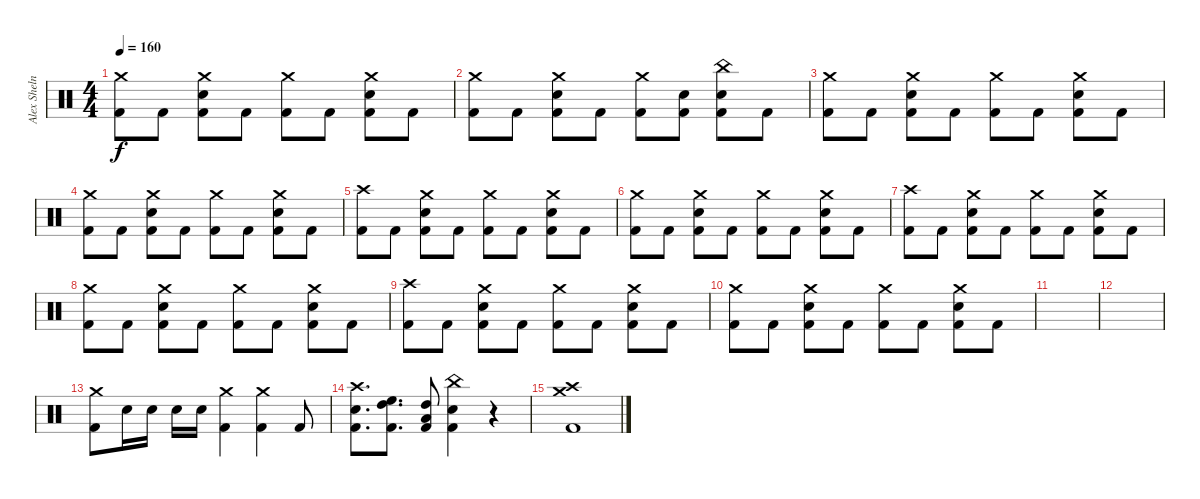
\track ("Alex Shelnutt" "Alex Sheln") {instrument percussion}
\staff {score}
\articulation defaults
\ts (4 4)
\tempo 160
\clef neutral
\ks c
("Crash medium (hit)" "Kick (hit) 2").8{dy f} "Kick (hit) 2".8 ("Crash medium (hit)" "Electric Snare (hit)" "Kick (hit) 2").8 "Kick (hit) 2".8 ("Crash medium (hit)" "Kick (hit) 2").8 "Kick (hit) 2".8 ("Crash medium (hit)" "Electric Snare (hit)" "Kick (hit) 2").8 "Kick (hit) 2".8 |
("Crash medium (hit)" "Kick (hit) 2").8 "Kick (hit) 2".8 ("Crash medium (hit)" "Electric Snare (hit)" "Kick (hit) 2").8 "Kick (hit) 2".8 ("Crash medium (hit)" "Kick (hit) 2").8 ("Electric Snare (hit)" "Kick (hit) 2").8 ("China (hit)" "Electric Snare (hit)" "Kick (hit) 2").8 "Kick (hit) 2".8 |
("Crash medium (hit)" "Kick (hit) 2").8 "Kick (hit) 2".8 ("Crash medium (hit)" "Electric Snare (hit)" "Kick (hit) 2").8 "Kick (hit) 2".8 ("Crash medium (hit)" "Kick (hit) 2").8 "Kick (hit) 2".8 ("Crash medium (hit)" "Electric Snare (hit)" "Kick (hit) 2").8 "Kick (hit) 2".8 |
("Crash medium (hit)" "Kick (hit) 2").8 "Kick (hit) 2".8 ("Crash medium (hit)" "Electric Snare (hit)" "Kick (hit) 2").8 "Kick (hit) 2".8 ("Crash medium (hit)" "Kick (hit) 2").8 "Kick (hit) 2".8 ("Crash medium (hit)" "Electric Snare (hit)" "Kick (hit) 2").8 "Kick (hit) 2".8 |
("Crash high (hit)" "Kick (hit) 2").8 "Kick (hit) 2".8 ("Crash medium (hit)" "Electric Snare (hit)" "Kick (hit) 2").8 "Kick (hit) 2".8 ("Crash medium (hit)" "Kick (hit) 2").8 "Kick (hit) 2".8 ("Crash medium (hit)" "Electric Snare (hit)" "Kick (hit) 2").8 "Kick (hit) 2".8 |
("Crash medium (hit)" "Kick (hit) 2").8 "Kick (hit) 2".8 ("Crash medium (hit)" "Electric Snare (hit)" "Kick (hit) 2").8 "Kick (hit) 2".8 ("Crash medium (hit)" "Kick (hit) 2").8 "Kick (hit) 2".8 ("Crash medium (hit)" "Electric Snare (hit)" "Kick (hit) 2").8 "Kick (hit) 2".8 |
("Crash high (hit)" "Kick (hit) 2").8 "Kick (hit) 2".8 ("Crash medium (hit)" "Electric Snare (hit)" "Kick (hit) 2").8 "Kick (hit) 2".8 ("Crash medium (hit)" "Kick (hit) 2").8 "Kick (hit) 2".8 ("Crash medium (hit)" "Electric Snare (hit)" "Kick (hit) 2").8 "Kick (hit) 2".8 |
("Crash medium (hit)" "Kick (hit) 2").8 "Kick (hit) 2".8 ("Crash medium (hit)" "Electric Snare (hit)" "Kick (hit) 2").8 "Kick (hit) 2".8 ("Crash medium (hit)" "Kick (hit) 2").8 "Kick (hit) 2".8 ("Crash medium (hit)" "Electric Snare (hit)" "Kick (hit) 2").8 "Kick (hit) 2".8 |
("Crash high (hit)" "Kick (hit) 2").8 "Kick (hit) 2".8 ("Crash medium (hit)" "Electric Snare (hit)" "Kick (hit) 2").8 "Kick (hit) 2".8 ("Crash medium (hit)" "Kick (hit) 2").8 "Kick (hit) 2".8 ("Crash medium (hit)" "Electric Snare (hit)" "Kick (hit) 2").8 "Kick (hit) 2".8 |
("Crash medium (hit)" "Kick (hit) 2").8 "Kick (hit) 2".8 ("Crash medium (hit)" "Electric Snare (hit)" "Kick (hit) 2").8 "Kick (hit) 2".8 ("Crash medium (hit)" "Kick (hit) 2").8 "Kick (hit) 2".8 ("Crash medium (hit)" "Electric Snare (hit)" "Kick (hit) 2").8 "Kick (hit) 2".8 |
|
|
("Crash medium (hit)" "Kick (hit) 2").8 "Electric Snare (hit)".16 "Electric Snare (hit)".16 "Electric Snare (hit)".16 "Electric Snare (hit)".16 ("Crash medium (hit)" "Kick (hit) 2").4 ("Crash medium (hit)" "Kick (hit) 2").4 "Kick (hit) 2".8 |
("Crash high (hit)" "Electric Snare (hit)" "Kick (hit) 2").8{d} ("High Tom (hit)" "High Floor Tom (hit)" "Kick (hit) 2").8{d} ("Low Floor Tom (hit)" "High Tom (hit)" "Kick (hit) 2").8 ("China (hit)" "Electric Snare (hit)" "Kick (hit) 2").4 r.4 |
("Crash medium (hit)" "Crash high (hit)" "Kick (hit) 2").1
